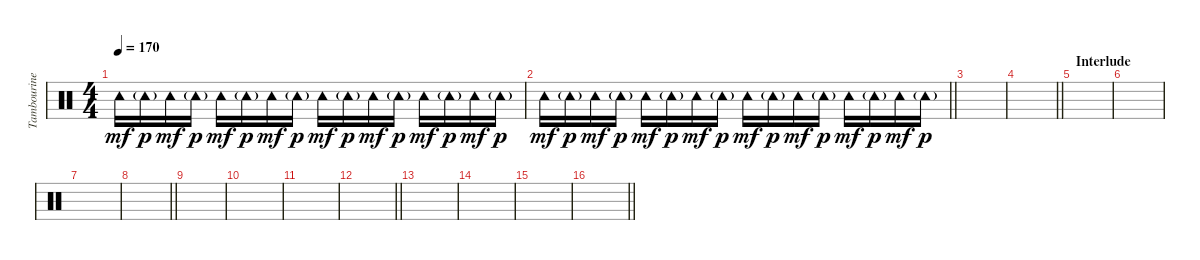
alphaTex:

\track ("Tambourine" "Tambourine") {instrument percussion}
\staff {score}
\articulation defaults
\ts (4 4)
\tempo 170
\clef neutral
\ks c "Tambourine (hit)".16{dy mf} "Tambourine (hit)"{g}.16{dy p} "Tambourine (hit)".16{dy mf} "Tambourine (hit)"{g}.16{dy p} "Tambourine (hit)".16{dy mf} "Tambourine (hit)"{g}.16{dy p} "Tambourine (hit)".16{dy mf} "Tambourine (hit)"{g}.16{dy p} "Tambourine (hit)".16{dy mf} "Tambourine (hit)"{g}.16{dy p} "Tambourine (hit)".16{dy mf} "Tambourine (hit)"{g}.16{dy p} "Tambourine (hit)".16{dy mf} "Tambourine (hit)"{g}.16{dy p} "Tambourine (hit)".16{dy mf} "Tambourine (hit)"{g}.16{dy p}
|
\barLineRight lightlight "Tambourine (hit)".16{dy mf} "Tambourine (hit)"{g}.16{dy p} "Tambourine (hit)".16{dy mf} "Tambourine (hit)"{g}.16{dy p} "Tambourine (hit)".16{dy mf} "Tambourine (hit)"{g}.16{dy p} "Tambourine (hit)".16{dy mf} "Tambourine (hit)"{g}.16{dy p} "Tambourine (hit)".16{dy mf} "Tambourine (hit)"{g}.16{dy p} "Tambourine (hit)".16{dy mf} "Tambourine (hit)"{g}.16{dy p} "Tambourine (hit)".16{dy mf} "Tambourine (hit)"{g}.16{dy p} "Tambourine (hit)".16{dy mf} "Tambourine (hit)"{g}.16{dy p}
|
|
\barLineRight lightlight
|
\section ("" "Interlude")
|
|
|
\barLineRight lightlight
|
|
|
|
\barLineRight lightlight
|
|
|
|
\barLineRight lightlight
